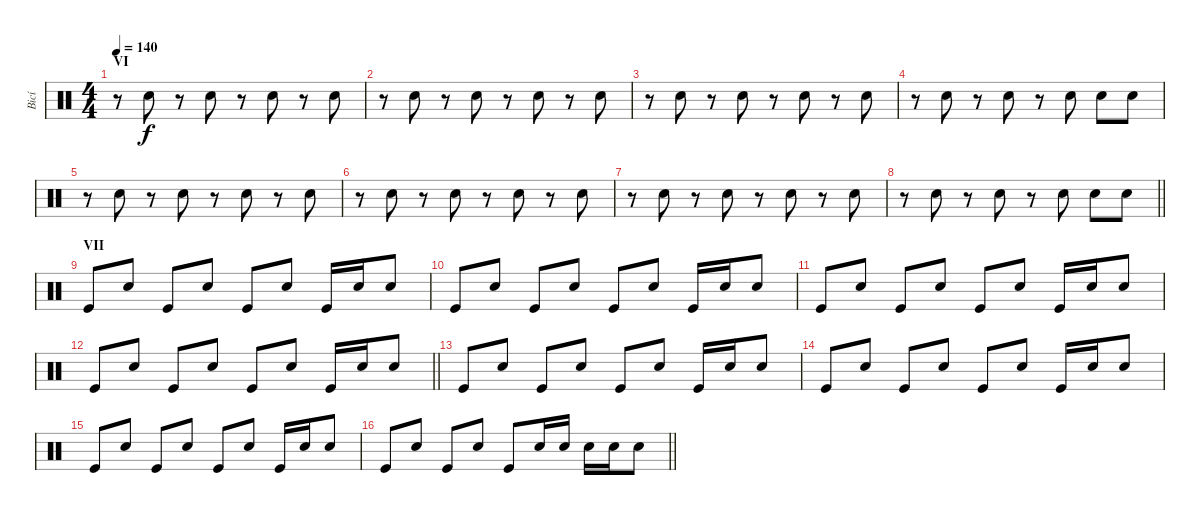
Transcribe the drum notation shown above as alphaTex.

\track ("Bicí" "Bicí") {instrument percussion}
\staff {score}
\articulation defaults
\ts (4 4)
\section ("" "VI")
\tempo 140
\clef neutral
\ks c
r.8{dy f} "Electric Snare (hit)".8 r.8 "Electric Snare (hit)".8 r.8 "Electric Snare (hit)".8 r.8 "Electric Snare (hit)".8 |
r.8 "Electric Snare (hit)".8 r.8 "Electric Snare (hit)".8 r.8 "Electric Snare (hit)".8 r.8 "Electric Snare (hit)".8 |
r.8 "Electric Snare (hit)".8 r.8 "Electric Snare (hit)".8 r.8 "Electric Snare (hit)".8 r.8 "Electric Snare (hit)".8 |
r.8 "Electric Snare (hit)".8 r.8 "Electric Snare (hit)".8 r.8 "Electric Snare (hit)".8 "Electric Snare (hit)".8 "Electric Snare (hit)".8 |
r.8 "Electric Snare (hit)".8 r.8 "Electric Snare (hit)".8 r.8 "Electric Snare (hit)".8 r.8 "Electric Snare (hit)".8 |
r.8 "Electric Snare (hit)".8 r.8 "Electric Snare (hit)".8 r.8 "Electric Snare (hit)".8 r.8 "Electric Snare (hit)".8 |
r.8 "Electric Snare (hit)".8 r.8 "Electric Snare (hit)".8 r.8 "Electric Snare (hit)".8 r.8 "Electric Snare (hit)".8 |
\barLineRight lightlight
r.8 "Electric Snare (hit)".8 r.8 "Electric Snare (hit)".8 r.8 "Electric Snare (hit)".8 "Electric Snare (hit)".8 "Electric Snare (hit)".8 |
\section ("" "VII")
"Kick (hit)".8 "Electric Snare (hit)".8 "Kick (hit)".8 "Electric Snare (hit)".8 "Kick (hit)".8 "Electric Snare (hit)".8 "Kick (hit)".16 "Electric Snare (hit)".16 "Electric Snare (hit)".8 |
"Kick (hit)".8 "Electric Snare (hit)".8 "Kick (hit)".8 "Electric Snare (hit)".8 "Kick (hit)".8 "Electric Snare (hit)".8 "Kick (hit)".16 "Electric Snare (hit)".16 "Electric Snare (hit)".8 |
"Kick (hit)".8 "Electric Snare (hit)".8 "Kick (hit)".8 "Electric Snare (hit)".8 "Kick (hit)".8 "Electric Snare (hit)".8 "Kick (hit)".16 "Electric Snare (hit)".16 "Electric Snare (hit)".8 |
\barLineRight lightlight "Kick (hit)".8 "Electric Snare (hit)".8 "Kick (hit)".8 "Electric Snare (hit)".8 "Kick (hit)".8 "Electric Snare (hit)".8 "Kick (hit)".16 "Electric Snare (hit)".16 "Electric Snare (hit)".8
|
"Kick (hit)".8 "Electric Snare (hit)".8 "Kick (hit)".8 "Electric Snare (hit)".8 "Kick (hit)".8 "Electric Snare (hit)".8 "Kick (hit)".16 "Electric Snare (hit)".16 "Electric Snare (hit)".8 |
"Kick (hit)".8 "Electric Snare (hit)".8 "Kick (hit)".8 "Electric Snare (hit)".8 "Kick (hit)".8 "Electric Snare (hit)".8 "Kick (hit)".16 "Electric Snare (hit)".16 "Electric Snare (hit)".8 |
"Kick (hit)".8 "Electric Snare (hit)".8 "Kick (hit)".8 "Electric Snare (hit)".8 "Kick (hit)".8 "Electric Snare (hit)".8 "Kick (hit)".16 "Electric Snare (hit)".16 "Electric Snare (hit)".8 |
\barLineRight lightlight "Kick (hit)".8 "Electric Snare (hit)".8 "Kick (hit)".8 "Electric Snare (hit)".8 "Kick (hit)".8 "Electric Snare (hit)".16 "Electric Snare (hit)".16 "Electric Snare (hit)".16 "Electric Snare (hit)".16 "Electric Snare (hit)".8
